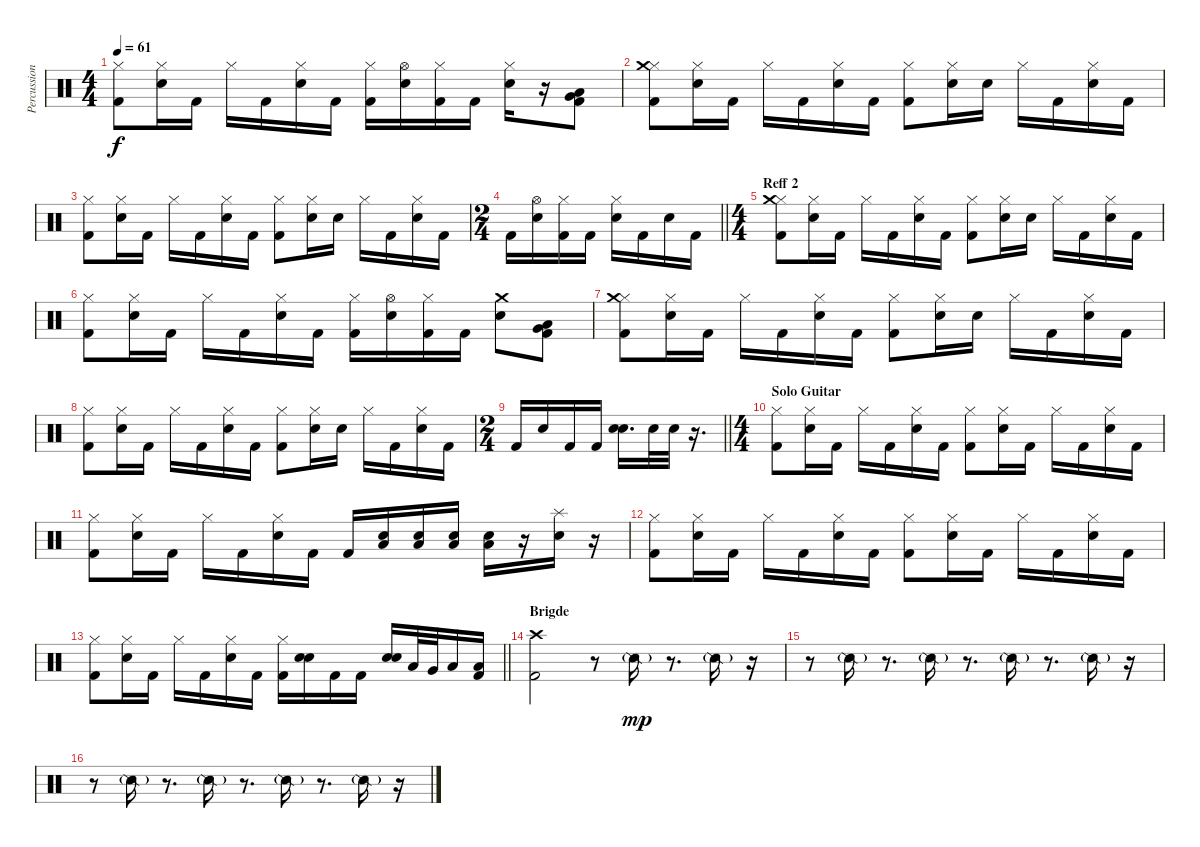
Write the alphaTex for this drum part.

\track ("Percussion 1" "Percussion") {instrument percussion}
\staff {score}
\articulation defaults
\ts (4 4)
\tempo 61
\clef neutral
\ks c
("Hi-Hat (closed)" "Kick (hit) 2").8{dy f} ("Hi-Hat (closed)" "Snare (hit) 2").16 "Kick (hit) 2".16 "Hi-Hat (closed)".16 "Kick (hit) 2".16 ("Hi-Hat (closed)" "Snare (hit) 2").16 "Kick (hit) 2".16 ("Hi-Hat (closed)" "Kick (hit) 2").16 ("Hi-Hat (open)" "Snare (hit) 2").16 ("Hi-Hat (closed)" "Kick (hit) 2").16 "Kick (hit) 2".16 ("Hi-Hat (closed)" "Snare (hit) 2").16 r.16 ("Low Floor Tom (hit)" "Very Low Tom (hit)" "Kick (hit) 2").8 |
("Hi-Hat (closed)" "Crash medium (hit)" "Kick (hit) 2").8 ("Hi-Hat (closed)" "Snare (hit) 2").16 "Kick (hit) 2".16 "Hi-Hat (closed)".16 "Kick (hit) 2".16 ("Hi-Hat (closed)" "Snare (hit) 2").16 "Kick (hit) 2".16 ("Hi-Hat (closed)" "Kick (hit) 2").8 ("Hi-Hat (closed)" "Snare (hit) 2").16 "Snare (hit) 2".16 "Hi-Hat (closed)".16 "Kick (hit) 2".16 ("Hi-Hat (closed)" "Snare (hit) 2").16 "Kick (hit) 2".16 |
("Hi-Hat (closed)" "Kick (hit) 2").8 ("Hi-Hat (closed)" "Snare (hit) 2").16 "Kick (hit) 2".16 "Hi-Hat (closed)".16 "Kick (hit) 2".16 ("Hi-Hat (closed)" "Snare (hit) 2").16 "Kick (hit) 2".16 ("Hi-Hat (closed)" "Kick (hit) 2").8 ("Hi-Hat (closed)" "Snare (hit) 2").16 "Snare (hit) 2".16 "Hi-Hat (closed)".16 "Kick (hit) 2".16 ("Hi-Hat (closed)" "Snare (hit) 2").16 "Kick (hit) 2".16 |
\ts (2 4)
\barLineRight lightlight "Kick (hit) 2".16
("Hi-Hat (open)" "Snare (hit) 2").16 ("Hi-Hat (closed)" "Kick (hit) 2").16 "Kick (hit) 2".16 ("Hi-Hat (closed)" "Snare (hit) 2").16 "Kick (hit) 2".16 "Snare (hit) 2".16 "Kick (hit) 2".16 |
\ts (4 4)
\section ("" "Reff 2")
("Hi-Hat (closed)" "Crash medium (hit)" "Kick (hit) 2").8 ("Hi-Hat (closed)" "Snare (hit) 2").16 "Kick (hit) 2".16 "Hi-Hat (closed)".16 "Kick (hit) 2".16 ("Hi-Hat (closed)" "Snare (hit) 2").16 "Kick (hit) 2".16 ("Hi-Hat (closed)" "Kick (hit) 2").8 ("Hi-Hat (closed)" "Snare (hit) 2").16 "Snare (hit) 2".16 "Hi-Hat (closed)".16 "Kick (hit) 2".16 ("Hi-Hat (closed)" "Snare (hit) 2").16 "Kick (hit) 2".16 |
("Hi-Hat (closed)" "Kick (hit) 2").8 ("Hi-Hat (closed)" "Snare (hit) 2").16 "Kick (hit) 2".16 "Hi-Hat (closed)".16 "Kick (hit) 2".16 ("Hi-Hat (closed)" "Snare (hit) 2").16 "Kick (hit) 2".16 ("Hi-Hat (closed)" "Kick (hit) 2").16 ("Hi-Hat (open)" "Snare (hit) 2").16 ("Hi-Hat (closed)" "Kick (hit) 2").16 "Kick (hit) 2".16 ("Crash medium (hit)" "Snare (hit) 2").8 ("Low Floor Tom (hit)" "Very Low Tom (hit)" "Kick (hit) 2").8 |
("Hi-Hat (closed)" "Crash medium (hit)" "Kick (hit) 2").8 ("Hi-Hat (closed)" "Snare (hit) 2").16 "Kick (hit) 2".16 "Hi-Hat (closed)".16 "Kick (hit) 2".16 ("Hi-Hat (closed)" "Snare (hit) 2").16 "Kick (hit) 2".16 ("Hi-Hat (closed)" "Kick (hit) 2").8 ("Hi-Hat (closed)" "Snare (hit) 2").16 "Snare (hit) 2".16 "Hi-Hat (closed)".16 "Kick (hit) 2".16 ("Hi-Hat (closed)" "Snare (hit) 2").16 "Kick (hit) 2".16 |
("Hi-Hat (closed)" "Kick (hit) 2").8 ("Hi-Hat (closed)" "Snare (hit) 2").16 "Kick (hit) 2".16 "Hi-Hat (closed)".16 "Kick (hit) 2".16 ("Hi-Hat (closed)" "Snare (hit) 2").16 "Kick (hit) 2".16 ("Hi-Hat (closed)" "Kick (hit) 2").8 ("Hi-Hat (closed)" "Snare (hit) 2").16 "Snare (hit) 2".16 "Hi-Hat (closed)".16 "Kick (hit) 2".16 ("Hi-Hat (closed)" "Snare (hit) 2").16 "Kick (hit) 2".16 |
\ts (2 4)
\barLineRight lightlight "Kick (hit) 2".16 "Snare (hit) 2".16 "Kick (hit) 2".16 "Kick (hit) 2".16
("Snare (hit) 2" "Snare (hit) 2").16{d bd 60} "Snare (hit) 2".32 "Snare (hit) 2".32 r.16{d} |
\ts (4 4)
\section ("" "Solo Guitar")
("Hi-Hat (closed)" "Kick (hit) 2").8 ("Hi-Hat (closed)" "Snare (hit) 2").16 "Kick (hit) 2".16 "Hi-Hat (closed)".16 "Kick (hit) 2".16 ("Hi-Hat (closed)" "Snare (hit) 2").16 "Kick (hit) 2".16 ("Hi-Hat (closed)" "Kick (hit) 2").8 ("Hi-Hat (closed)" "Snare (hit) 2").16 "Kick (hit) 2".16 "Hi-Hat (closed)".16 "Kick (hit) 2".16 ("Hi-Hat (closed)" "Snare (hit) 2").16 "Kick (hit) 2".16 |
("Hi-Hat (closed)" "Kick (hit) 2").8 ("Hi-Hat (closed)" "Snare (hit) 2").16 "Kick (hit) 2".16 "Hi-Hat (closed)".16 "Kick (hit) 2".16 ("Hi-Hat (closed)" "Snare (hit) 2").16 "Kick (hit) 2".16 "Kick (hit) 2".16 ("Low Floor Tom (hit)" "Snare (hit) 2").16 ("Low Floor Tom (hit)" "Snare (hit) 2").16 ("Low Floor Tom (hit)" "Snare (hit) 2").16 ("Low Floor Tom (hit)" "Snare (hit) 2").16 r.16 ("Splash (hit)" "Snare (hit) 2").16 r.16 |
("Hi-Hat (closed)" "Kick (hit) 2").8 ("Hi-Hat (closed)" "Snare (hit) 2").16 "Kick (hit) 2".16 "Hi-Hat (closed)".16 "Kick (hit) 2".16 ("Hi-Hat (closed)" "Snare (hit) 2").16 "Kick (hit) 2".16 ("Hi-Hat (closed)" "Kick (hit) 2").8 ("Hi-Hat (closed)" "Snare (hit) 2").16 "Kick (hit) 2".16 "Hi-Hat (closed)".16 "Kick (hit) 2".16 ("Hi-Hat (closed)" "Snare (hit) 2").16 "Kick (hit) 2".16 |
\barLineRight lightlight
("Hi-Hat (closed)" "Kick (hit) 2").8 ("Hi-Hat (closed)" "Snare (hit) 2").16 "Kick (hit) 2".16 "Hi-Hat (closed)".16 "Kick (hit) 2".16 ("Hi-Hat (closed)" "Snare (hit) 2").16 "Kick (hit) 2".16 ("Hi-Hat (closed)" "Kick (hit) 2").16 ("Snare (hit) 2" "Snare (hit) 2").16{bd 30} "Kick (hit) 2".16 "Kick (hit) 2".16 ("Snare (hit) 2" "Snare (hit) 2").16{bd 30} "Low Tom (hit)".32 "Very Low Tom (hit)".32 "Low Floor Tom (hit)".16 ("Low Floor Tom (hit)" "Kick (hit) 2").16 |
\section ("" "Brigde")
("Crash high (hit)" "Kick (hit) 2").2 r.8 "Snare (side stick) 2"{g}.16{dy mp} r.8{d} "Snare (side stick) 2"{g}.16 r.16 |
r.8 "Snare (side stick) 2"{g}.16 r.8{d} "Snare (side stick) 2"{g}.16 r.8{d} "Snare (side stick) 2"{g}.16 r.8{d} "Snare (side stick) 2"{g}.16 r.16 |
r.8 "Snare (side stick) 2"{g}.16 r.8{d} "Snare (side stick) 2"{g}.16 r.8{d} "Snare (side stick) 2"{g}.16 r.8{d} "Snare (side stick) 2"{g}.16 r.16
